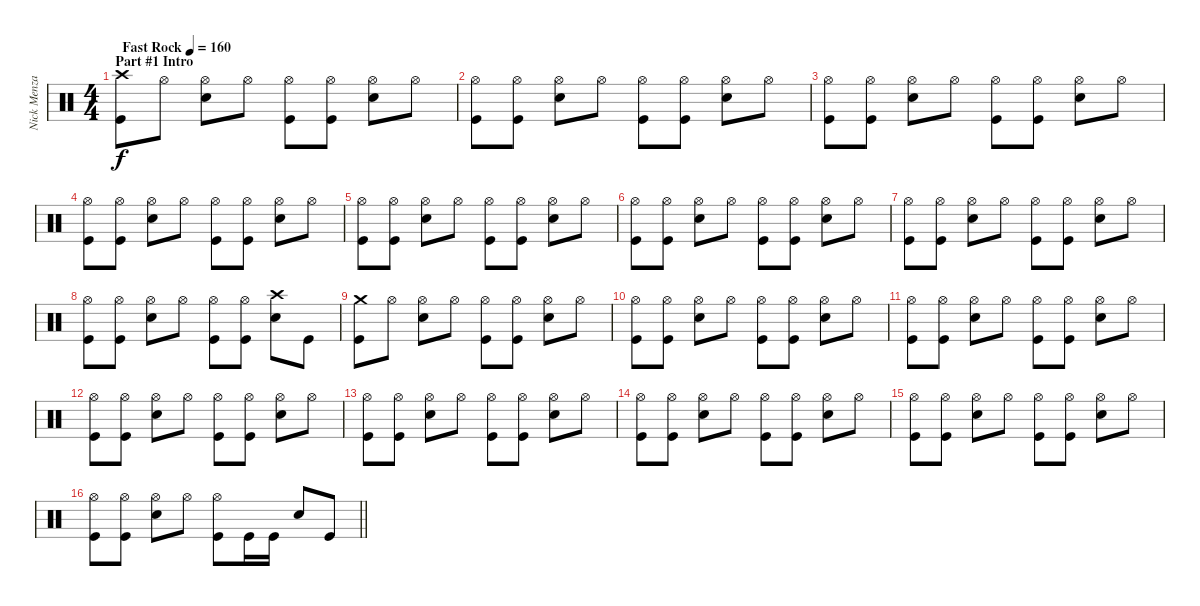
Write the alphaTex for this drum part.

\track ("Nick Menza" "Nick Menza") {instrument percussion}
\staff {score}
\articulation defaults
\ts (4 4)
\section ("" "Part #1 Intro")
\tempo (160 "Fast Rock")
\clef neutral
\ks c
("Crash high (hit)" "Kick (hit)").8{dy f} "Hi-Hat (open)".8 ("Hi-Hat (open)" "Snare (hit) 2").8 "Hi-Hat (open)".8 ("Hi-Hat (open)" "Kick (hit)").8 ("Hi-Hat (open)" "Kick (hit)").8 ("Hi-Hat (open)" "Snare (hit) 2").8 "Hi-Hat (open)".8 |
("Hi-Hat (open)" "Kick (hit)").8 ("Hi-Hat (open)" "Kick (hit)").8 ("Hi-Hat (open)" "Snare (hit) 2").8 "Hi-Hat (open)".8 ("Hi-Hat (open)" "Kick (hit)").8 ("Hi-Hat (open)" "Kick (hit)").8 ("Hi-Hat (open)" "Snare (hit) 2").8 "Hi-Hat (open)".8 |
("Hi-Hat (open)" "Kick (hit)").8 ("Hi-Hat (open)" "Kick (hit)").8 ("Hi-Hat (open)" "Snare (hit) 2").8 "Hi-Hat (open)".8 ("Hi-Hat (open)" "Kick (hit)").8 ("Hi-Hat (open)" "Kick (hit)").8 ("Hi-Hat (open)" "Snare (hit) 2").8 "Hi-Hat (open)".8 |
("Hi-Hat (open)" "Kick (hit)").8 ("Hi-Hat (open)" "Kick (hit)").8 ("Hi-Hat (open)" "Snare (hit) 2").8 "Hi-Hat (open)".8 ("Hi-Hat (open)" "Kick (hit)").8 ("Hi-Hat (open)" "Kick (hit)").8 ("Hi-Hat (open)" "Snare (hit) 2").8 "Hi-Hat (open)".8 |
("Hi-Hat (open)" "Kick (hit)").8 ("Hi-Hat (open)" "Kick (hit)").8 ("Hi-Hat (open)" "Snare (hit) 2").8 "Hi-Hat (open)".8 ("Hi-Hat (open)" "Kick (hit)").8 ("Hi-Hat (open)" "Kick (hit)").8 ("Hi-Hat (open)" "Snare (hit) 2").8 "Hi-Hat (open)".8 |
("Hi-Hat (open)" "Kick (hit)").8 ("Hi-Hat (open)" "Kick (hit)").8 ("Hi-Hat (open)" "Snare (hit) 2").8 "Hi-Hat (open)".8 ("Hi-Hat (open)" "Kick (hit)").8 ("Hi-Hat (open)" "Kick (hit)").8 ("Hi-Hat (open)" "Snare (hit) 2").8 "Hi-Hat (open)".8 |
("Hi-Hat (open)" "Kick (hit)").8 ("Hi-Hat (open)" "Kick (hit)").8 ("Hi-Hat (open)" "Snare (hit) 2").8 "Hi-Hat (open)".8 ("Hi-Hat (open)" "Kick (hit)").8 ("Hi-Hat (open)" "Kick (hit)").8 ("Hi-Hat (open)" "Snare (hit) 2").8 "Hi-Hat (open)".8 |
("Hi-Hat (open)" "Kick (hit)").8 ("Hi-Hat (open)" "Kick (hit)").8 ("Hi-Hat (open)" "Snare (hit) 2").8 "Hi-Hat (open)".8 ("Hi-Hat (open)" "Kick (hit)").8 ("Hi-Hat (open)" "Kick (hit)").8 ("Crash high (hit)" "Snare (hit) 2").8 "Kick (hit)".8 |
("Crash medium (hit)" "Kick (hit)").8 "Hi-Hat (open)".8 ("Hi-Hat (open)" "Snare (hit) 2").8 "Hi-Hat (open)".8 ("Hi-Hat (open)" "Kick (hit)").8 ("Hi-Hat (open)" "Kick (hit)").8 ("Hi-Hat (open)" "Snare (hit) 2").8 "Hi-Hat (open)".8 |
("Hi-Hat (open)" "Kick (hit)").8 ("Hi-Hat (open)" "Kick (hit)").8 ("Hi-Hat (open)" "Snare (hit) 2").8 "Hi-Hat (open)".8 ("Hi-Hat (open)" "Kick (hit)").8 ("Hi-Hat (open)" "Kick (hit)").8 ("Hi-Hat (open)" "Snare (hit) 2").8 "Hi-Hat (open)".8 |
("Hi-Hat (open)" "Kick (hit)").8 ("Hi-Hat (open)" "Kick (hit)").8 ("Hi-Hat (open)" "Snare (hit) 2").8 "Hi-Hat (open)".8 ("Hi-Hat (open)" "Kick (hit)").8 ("Hi-Hat (open)" "Kick (hit)").8 ("Hi-Hat (open)" "Snare (hit) 2").8 "Hi-Hat (open)".8 |
("Hi-Hat (open)" "Kick (hit)").8 ("Hi-Hat (open)" "Kick (hit)").8 ("Hi-Hat (open)" "Snare (hit) 2").8 "Hi-Hat (open)".8 ("Hi-Hat (open)" "Kick (hit)").8 ("Hi-Hat (open)" "Kick (hit)").8 ("Hi-Hat (open)" "Snare (hit) 2").8 "Hi-Hat (open)".8 |
("Hi-Hat (open)" "Kick (hit)").8 ("Hi-Hat (open)" "Kick (hit)").8 ("Hi-Hat (open)" "Snare (hit) 2").8 "Hi-Hat (open)".8 ("Hi-Hat (open)" "Kick (hit)").8 ("Hi-Hat (open)" "Kick (hit)").8 ("Hi-Hat (open)" "Snare (hit) 2").8 "Hi-Hat (open)".8 |
("Hi-Hat (open)" "Kick (hit)").8 ("Hi-Hat (open)" "Kick (hit)").8 ("Hi-Hat (open)" "Snare (hit) 2").8 "Hi-Hat (open)".8 ("Hi-Hat (open)" "Kick (hit)").8 ("Hi-Hat (open)" "Kick (hit)").8 ("Hi-Hat (open)" "Snare (hit) 2").8 "Hi-Hat (open)".8 |
("Hi-Hat (open)" "Kick (hit)").8 ("Hi-Hat (open)" "Kick (hit)").8 ("Hi-Hat (open)" "Snare (hit) 2").8 "Hi-Hat (open)".8 ("Hi-Hat (open)" "Kick (hit)").8 ("Hi-Hat (open)" "Kick (hit)").8 ("Hi-Hat (open)" "Snare (hit) 2").8 "Hi-Hat (open)".8 |
\barLineRight lightlight
("Hi-Hat (open)" "Kick (hit)").8 ("Hi-Hat (open)" "Kick (hit)").8 ("Hi-Hat (open)" "Snare (hit) 2").8 "Hi-Hat (open)".8 ("Hi-Hat (open)" "Kick (hit)").8 "Kick (hit)".16 "Kick (hit)".16 "Snare (hit) 2".8 "Kick (hit)".8
